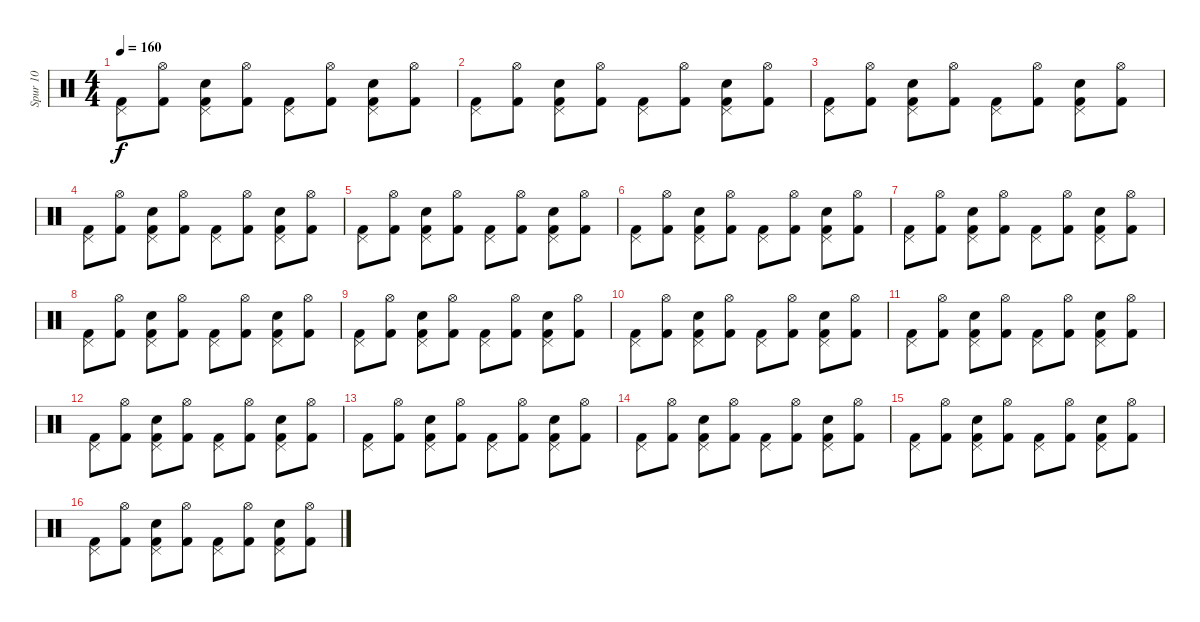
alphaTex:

\track ("Spur 10" "Spur 10") {instrument percussion}
\staff {score}
\articulation defaults
\ts (4 4)
\tempo 160
\clef neutral
\ks c
("Pedal Hi-Hat (hit)" "Kick (hit) 2").8{dy f} ("Kick (hit) 2" "Hi-Hat (open)").8 ("Kick (hit) 2" "Pedal Hi-Hat (hit)" "Snare (hit) 2").8 ("Kick (hit) 2" "Hi-Hat (open)").8 ("Kick (hit) 2" "Pedal Hi-Hat (hit)").8 ("Hi-Hat (open)" "Kick (hit) 2").8 ("Kick (hit) 2" "Snare (hit) 2" "Pedal Hi-Hat (hit)").8 ("Hi-Hat (open)" "Kick (hit) 2").8 |
("Pedal Hi-Hat (hit)" "Kick (hit) 2").8 ("Hi-Hat (open)" "Kick (hit) 2").8 ("Kick (hit) 2" "Pedal Hi-Hat (hit)" "Snare (hit) 2").8 ("Kick (hit) 2" "Hi-Hat (open)").8 ("Kick (hit) 2" "Pedal Hi-Hat (hit)").8 ("Kick (hit) 2" "Hi-Hat (open)").8 ("Pedal Hi-Hat (hit)" "Snare (hit) 2" "Kick (hit) 2").8 ("Kick (hit) 2" "Hi-Hat (open)").8 |
("Pedal Hi-Hat (hit)" "Kick (hit) 2").8 ("Hi-Hat (open)" "Kick (hit) 2").8 ("Pedal Hi-Hat (hit)" "Snare (hit) 2" "Kick (hit) 2").8 ("Kick (hit) 2" "Hi-Hat (open)").8 ("Kick (hit) 2" "Pedal Hi-Hat (hit)").8 ("Kick (hit) 2" "Hi-Hat (open)").8 ("Kick (hit) 2" "Snare (hit) 2" "Pedal Hi-Hat (hit)").8 ("Hi-Hat (open)" "Kick (hit) 2").8 |
("Pedal Hi-Hat (hit)" "Kick (hit) 2").8 ("Kick (hit) 2" "Hi-Hat (open)").8 ("Pedal Hi-Hat (hit)" "Kick (hit) 2" "Snare (hit) 2").8 ("Kick (hit) 2" "Hi-Hat (open)").8 ("Pedal Hi-Hat (hit)" "Kick (hit) 2").8 ("Kick (hit) 2" "Hi-Hat (open)").8 ("Kick (hit) 2" "Snare (hit) 2" "Pedal Hi-Hat (hit)").8 ("Hi-Hat (open)" "Kick (hit) 2").8 |
("Kick (hit) 2" "Pedal Hi-Hat (hit)").8 ("Hi-Hat (open)" "Kick (hit) 2").8 ("Snare (hit) 2" "Pedal Hi-Hat (hit)" "Kick (hit) 2").8 ("Hi-Hat (open)" "Kick (hit) 2").8 ("Pedal Hi-Hat (hit)" "Kick (hit) 2").8 ("Kick (hit) 2" "Hi-Hat (open)").8 ("Kick (hit) 2" "Pedal Hi-Hat (hit)" "Snare (hit) 2").8 ("Hi-Hat (open)" "Kick (hit) 2").8 |
("Pedal Hi-Hat (hit)" "Kick (hit) 2").8 ("Hi-Hat (open)" "Kick (hit) 2").8 ("Kick (hit) 2" "Snare (hit) 2" "Pedal Hi-Hat (hit)").8 ("Kick (hit) 2" "Hi-Hat (open)").8 ("Kick (hit) 2" "Pedal Hi-Hat (hit)").8 ("Kick (hit) 2" "Hi-Hat (open)").8 ("Pedal Hi-Hat (hit)" "Snare (hit) 2" "Kick (hit) 2").8 ("Hi-Hat (open)" "Kick (hit) 2").8 |
("Pedal Hi-Hat (hit)" "Kick (hit) 2").8 ("Kick (hit) 2" "Hi-Hat (open)").8 ("Pedal Hi-Hat (hit)" "Snare (hit) 2" "Kick (hit) 2").8 ("Kick (hit) 2" "Hi-Hat (open)").8 ("Pedal Hi-Hat (hit)" "Kick (hit) 2").8 ("Kick (hit) 2" "Hi-Hat (open)").8 ("Pedal Hi-Hat (hit)" "Snare (hit) 2" "Kick (hit) 2").8 ("Hi-Hat (open)" "Kick (hit) 2").8 |
("Pedal Hi-Hat (hit)" "Kick (hit) 2").8 ("Hi-Hat (open)" "Kick (hit) 2").8 ("Kick (hit) 2" "Snare (hit) 2" "Pedal Hi-Hat (hit)").8 ("Hi-Hat (open)" "Kick (hit) 2").8 ("Pedal Hi-Hat (hit)" "Kick (hit) 2").8 ("Kick (hit) 2" "Hi-Hat (open)").8 ("Kick (hit) 2" "Snare (hit) 2" "Pedal Hi-Hat (hit)").8 ("Kick (hit) 2" "Hi-Hat (open)").8 |
("Kick (hit) 2" "Pedal Hi-Hat (hit)").8 ("Kick (hit) 2" "Hi-Hat (open)").8 ("Kick (hit) 2" "Snare (hit) 2" "Pedal Hi-Hat (hit)").8 ("Hi-Hat (open)" "Kick (hit) 2").8 ("Kick (hit) 2" "Pedal Hi-Hat (hit)").8 ("Hi-Hat (open)" "Kick (hit) 2").8 ("Snare (hit) 2" "Pedal Hi-Hat (hit)" "Kick (hit) 2").8 ("Hi-Hat (open)" "Kick (hit) 2").8 |
("Pedal Hi-Hat (hit)" "Kick (hit) 2").8 ("Kick (hit) 2" "Hi-Hat (open)").8 ("Pedal Hi-Hat (hit)" "Snare (hit) 2" "Kick (hit) 2").8 ("Kick (hit) 2" "Hi-Hat (open)").8 ("Pedal Hi-Hat (hit)" "Kick (hit) 2").8 ("Hi-Hat (open)" "Kick (hit) 2").8 ("Snare (hit) 2" "Kick (hit) 2" "Pedal Hi-Hat (hit)").8 ("Hi-Hat (open)" "Kick (hit) 2").8 |
("Pedal Hi-Hat (hit)" "Kick (hit) 2").8 ("Hi-Hat (open)" "Kick (hit) 2").8 ("Kick (hit) 2" "Snare (hit) 2" "Pedal Hi-Hat (hit)").8 ("Kick (hit) 2" "Hi-Hat (open)").8 ("Kick (hit) 2" "Pedal Hi-Hat (hit)").8 ("Hi-Hat (open)" "Kick (hit) 2").8 ("Snare (hit) 2" "Pedal Hi-Hat (hit)" "Kick (hit) 2").8 ("Kick (hit) 2" "Hi-Hat (open)").8 |
("Pedal Hi-Hat (hit)" "Kick (hit) 2").8 ("Hi-Hat (open)" "Kick (hit) 2").8 ("Pedal Hi-Hat (hit)" "Kick (hit) 2" "Snare (hit) 2").8 ("Kick (hit) 2" "Hi-Hat (open)").8 ("Kick (hit) 2" "Pedal Hi-Hat (hit)").8 ("Hi-Hat (open)" "Kick (hit) 2").8 ("Kick (hit) 2" "Pedal Hi-Hat (hit)" "Snare (hit) 2").8 ("Hi-Hat (open)" "Kick (hit) 2").8 |
("Pedal Hi-Hat (hit)" "Kick (hit) 2").8 ("Kick (hit) 2" "Hi-Hat (open)").8 ("Snare (hit) 2" "Pedal Hi-Hat (hit)" "Kick (hit) 2").8 ("Kick (hit) 2" "Hi-Hat (open)").8 ("Pedal Hi-Hat (hit)" "Kick (hit) 2").8 ("Hi-Hat (open)" "Kick (hit) 2").8 ("Snare (hit) 2" "Kick (hit) 2" "Pedal Hi-Hat (hit)").8 ("Hi-Hat (open)" "Kick (hit) 2").8 |
("Kick (hit) 2" "Pedal Hi-Hat (hit)").8 ("Hi-Hat (open)" "Kick (hit) 2").8 ("Snare (hit) 2" "Pedal Hi-Hat (hit)" "Kick (hit) 2").8 ("Kick (hit) 2" "Hi-Hat (open)").8 ("Pedal Hi-Hat (hit)" "Kick (hit) 2").8 ("Hi-Hat (open)" "Kick (hit) 2").8 ("Kick (hit) 2" "Snare (hit) 2" "Pedal Hi-Hat (hit)").8 ("Hi-Hat (open)" "Kick (hit) 2").8 |
("Kick (hit) 2" "Pedal Hi-Hat (hit)").8 ("Kick (hit) 2" "Hi-Hat (open)").8 ("Kick (hit) 2" "Snare (hit) 2" "Pedal Hi-Hat (hit)").8 ("Kick (hit) 2" "Hi-Hat (open)").8 ("Kick (hit) 2" "Pedal Hi-Hat (hit)").8 ("Hi-Hat (open)" "Kick (hit) 2").8 ("Kick (hit) 2" "Snare (hit) 2" "Pedal Hi-Hat (hit)").8 ("Hi-Hat (open)" "Kick (hit) 2").8 |
("Kick (hit) 2" "Pedal Hi-Hat (hit)").8 ("Kick (hit) 2" "Hi-Hat (open)").8 ("Kick (hit) 2" "Snare (hit) 2" "Pedal Hi-Hat (hit)").8 ("Hi-Hat (open)" "Kick (hit) 2").8 ("Kick (hit) 2" "Pedal Hi-Hat (hit)").8 ("Hi-Hat (open)" "Kick (hit) 2").8 ("Pedal Hi-Hat (hit)" "Kick (hit) 2" "Snare (hit) 2").8 ("Hi-Hat (open)" "Kick (hit) 2").8
